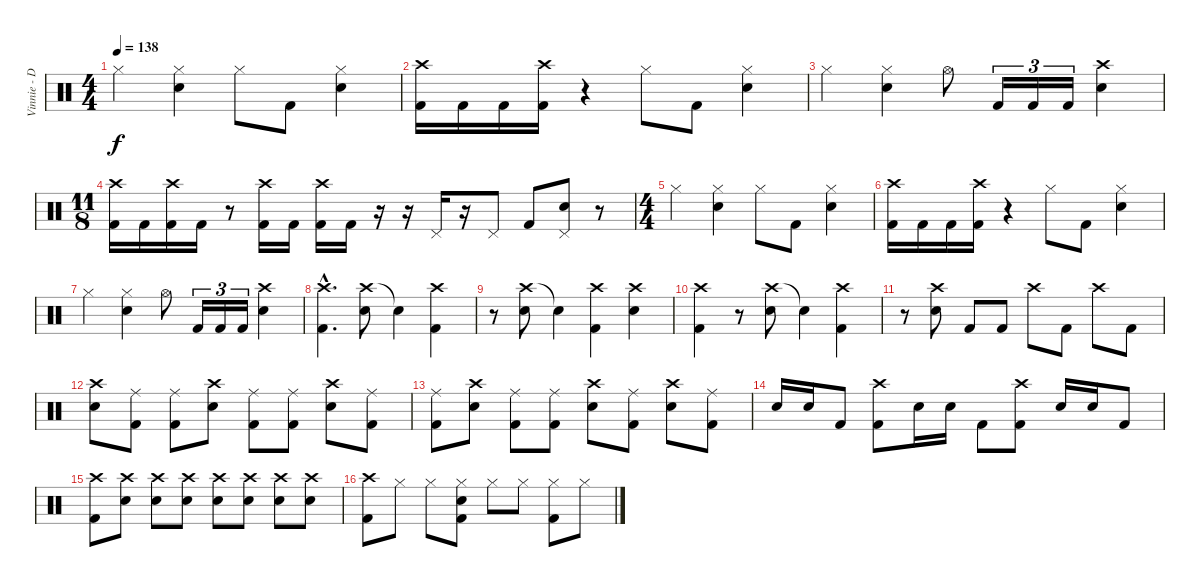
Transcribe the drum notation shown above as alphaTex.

\track ("Vinnie - Drums" "Vinnie - D") {instrument percussion}
\staff {score}
\articulation defaults
\ts (4 4)
\tempo 138
\clef neutral
\ks c "Hi-Hat (closed)".4{dy f}
("Hi-Hat (closed)" "Electric Snare (hit)").4 "Hi-Hat (closed)".8 "Kick (hit) 2".8 ("Hi-Hat (closed)" "Electric Snare (hit)").4 |
("Crash high (hit)" "Kick (hit) 2").16 "Kick (hit) 2".16 "Kick (hit) 2".16 ("Crash high (hit)" "Kick (hit) 2").16 r.4 "Hi-Hat (closed)".8 "Kick (hit) 2".8 ("Hi-Hat (closed)" "Electric Snare (hit)").4 |
"Hi-Hat (closed)".4 ("Hi-Hat (closed)" "Electric Snare (hit)").4 "Hi-Hat (open)".8 "Kick (hit) 2".16{tu (3 2)} "Kick (hit) 2".16{tu (3 2)} "Kick (hit) 2".16{tu (3 2)} ("Crash high (hit)" "Electric Snare (hit)").4 |
\ts (11 8)
("Crash high (hit)" "Kick (hit) 2").16 "Kick (hit) 2".16 ("Crash high (hit)" "Kick (hit) 2").16 "Kick (hit) 2".16 r.8 ("Crash high (hit)" "Kick (hit) 2").16 "Kick (hit) 2".16 ("Crash high (hit)" "Kick (hit) 2").16 "Kick (hit) 2".16 r.16 r.16 "Pedal Hi-Hat (hit)".16 r.16 "Pedal Hi-Hat (hit)".8 "Kick (hit) 2".8 ("Pedal Hi-Hat (hit)" "Electric Snare (hit)").8 r.8 |
\ts (4 4)
"Hi-Hat (closed)".4 ("Hi-Hat (closed)" "Electric Snare (hit)").4 "Hi-Hat (closed)".8 "Kick (hit) 2".8 ("Hi-Hat (closed)" "Electric Snare (hit)").4 |
("Crash high (hit)" "Kick (hit) 2").16 "Kick (hit) 2".16 "Kick (hit) 2".16 ("Crash high (hit)" "Kick (hit) 2").16 r.4 "Hi-Hat (closed)".8 "Kick (hit) 2".8 ("Hi-Hat (closed)" "Electric Snare (hit)").4 |
"Hi-Hat (closed)".4 ("Hi-Hat (closed)" "Electric Snare (hit)").4 "Hi-Hat (open)".8 "Kick (hit) 2".16{tu (3 2)} "Kick (hit) 2".16{tu (3 2)} "Kick (hit) 2".16{tu (3 2)} ("Crash high (hit)" "Electric Snare (hit)").4 |
("Crash high (hit)"{hac} "Kick (hit) 2"{hac}).4{d} ("Crash high (hit)" "Electric Snare (hit)").8 "Snare (hit)"{t}.4 ("Crash high (hit)" "Kick (hit) 2").4 |
r.8 ("Crash high (hit)" "Electric Snare (hit)").8 "Snare (hit)"{t}.4 ("Crash high (hit)" "Kick (hit) 2").4 ("Crash high (hit)" "Electric Snare (hit)").4 |
("Crash high (hit)" "Kick (hit) 2").4 r.8 ("Crash high (hit)" "Electric Snare (hit)").8 "Snare (hit)"{t}.4 ("Crash high (hit)" "Kick (hit) 2").4 |
r.8 ("Crash high (hit)" "Electric Snare (hit)").8 "Kick (hit) 2".8 "Kick (hit) 2".8 "Crash high (hit)".8 "Kick (hit) 2".8 "Crash high (hit)".8 "Kick (hit) 2".8 |
("Crash high (hit)" "Electric Snare (hit)").8 ("Ride (middle)" "Kick (hit) 2").8 ("Ride (middle)" "Kick (hit) 2").8 ("Crash high (hit)" "Electric Snare (hit)").8 ("Ride (middle)" "Kick (hit) 2").8 ("Ride (middle)" "Kick (hit) 2").8 ("Crash high (hit)" "Electric Snare (hit)").8 ("Ride (middle)" "Kick (hit) 2").8 |
("Ride (middle)" "Kick (hit) 2").8 ("Crash high (hit)" "Electric Snare (hit)").8 ("Ride (middle)" "Kick (hit) 2").8 ("Ride (middle)" "Kick (hit) 2").8 ("Crash high (hit)" "Electric Snare (hit)").8 ("Ride (middle)" "Kick (hit) 2").8 ("Crash high (hit)" "Electric Snare (hit)").8 ("Ride (middle)" "Kick (hit) 2").8 |
"Electric Snare (hit)".16 "Electric Snare (hit)".16 "Kick (hit) 2".8 ("Crash high (hit)" "Kick (hit) 2").8 "Electric Snare (hit)".16 "Electric Snare (hit)".16 "Kick (hit) 2".8 ("Crash high (hit)" "Kick (hit) 2").8 "Electric Snare (hit)".16 "Electric Snare (hit)".16 "Kick (hit) 2".8 |
("Crash high (hit)" "Kick (hit) 2").8 ("Crash high (hit)" "Electric Snare (hit)").8 ("Crash high (hit)" "Electric Snare (hit)").8 ("Crash high (hit)" "Electric Snare (hit)").8 ("Crash high (hit)" "Electric Snare (hit)").8 ("Crash high (hit)" "Electric Snare (hit)").8 ("Crash high (hit)" "Electric Snare (hit)").8 ("Crash high (hit)" "Electric Snare (hit)").8 |
("Crash high (hit)" "Kick (hit) 2").8 "Hi-Hat (closed)".8 "Hi-Hat (closed)".8 ("Hi-Hat (closed)" "Electric Snare (hit)" "Kick (hit) 2").8 "Hi-Hat (closed)".8 "Hi-Hat (closed)".8 ("Hi-Hat (closed)" "Kick (hit) 2").8 "Hi-Hat (closed)".8
